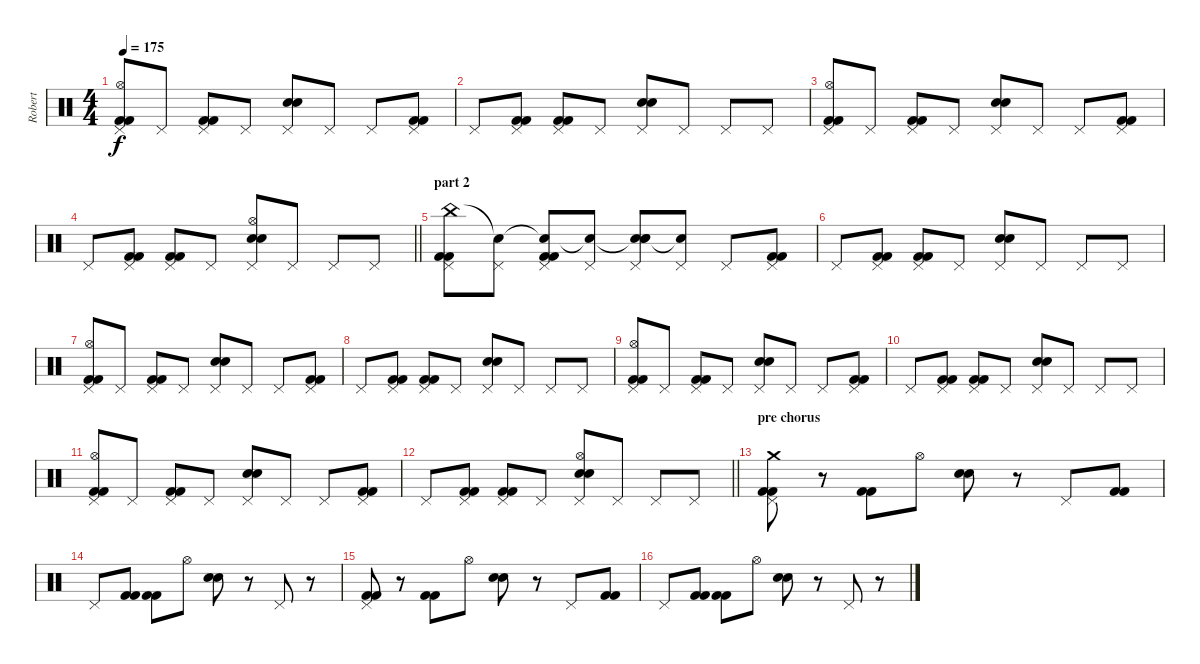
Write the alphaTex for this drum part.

\track ("Robert" "Robert") {instrument percussion}
\staff {score}
\articulation defaults
\ts (4 4)
\tempo 175
\clef neutral
\ks c
("Pedal Hi-Hat (hit)" "Hi-Hat (open)" "Kick (hit) 2" "Kick (hit) 2").8{dy f} "Pedal Hi-Hat (hit)".8 ("Pedal Hi-Hat (hit)" "Kick (hit) 2" "Kick (hit) 2").8 "Pedal Hi-Hat (hit)".8 ("Pedal Hi-Hat (hit)" "Electric Snare (hit)" "Electric Snare (hit)").8 "Pedal Hi-Hat (hit)".8 "Pedal Hi-Hat (hit)".8 ("Pedal Hi-Hat (hit)" "Kick (hit) 2" "Kick (hit) 2").8 |
"Pedal Hi-Hat (hit)".8 ("Pedal Hi-Hat (hit)" "Kick (hit) 2" "Kick (hit) 2").8 ("Pedal Hi-Hat (hit)" "Kick (hit) 2" "Kick (hit) 2").8 "Pedal Hi-Hat (hit)".8 ("Pedal Hi-Hat (hit)" "Electric Snare (hit)" "Electric Snare (hit)").8 "Pedal Hi-Hat (hit)".8 "Pedal Hi-Hat (hit)".8 "Pedal Hi-Hat (hit)".8 |
("Pedal Hi-Hat (hit)" "Hi-Hat (open)" "Kick (hit) 2" "Kick (hit) 2").8 "Pedal Hi-Hat (hit)".8 ("Pedal Hi-Hat (hit)" "Kick (hit) 2" "Kick (hit) 2").8 "Pedal Hi-Hat (hit)".8 ("Pedal Hi-Hat (hit)" "Electric Snare (hit)" "Electric Snare (hit)").8 "Pedal Hi-Hat (hit)".8 "Pedal Hi-Hat (hit)".8 ("Pedal Hi-Hat (hit)" "Kick (hit) 2" "Kick (hit) 2").8 |
\barLineRight lightlight "Pedal Hi-Hat (hit)".8
("Pedal Hi-Hat (hit)" "Kick (hit) 2" "Kick (hit) 2").8 ("Pedal Hi-Hat (hit)" "Kick (hit) 2" "Kick (hit) 2").8 "Pedal Hi-Hat (hit)".8 ("Pedal Hi-Hat (hit)" "Hi-Hat (open)" "Electric Snare (hit)" "Electric Snare (hit)").8 "Pedal Hi-Hat (hit)".8 "Pedal Hi-Hat (hit)".8 "Pedal Hi-Hat (hit)".8 |
\section ("" "part 2")
("Pedal Hi-Hat (hit)" "China (hit)" "Kick (hit) 2" "Kick (hit) 2").8 ("Pedal Hi-Hat (hit)" "Snare (hit)"{t}).8 ("Pedal Hi-Hat (hit)" "Snare (hit)"{t} "Kick (hit) 2" "Kick (hit) 2").8 ("Pedal Hi-Hat (hit)" "Snare (hit)"{t}).8 ("Pedal Hi-Hat (hit)" "Snare (hit)"{t} "Electric Snare (hit)" "Electric Snare (hit)").8 ("Pedal Hi-Hat (hit)" "Snare (hit)"{t}).8 "Pedal Hi-Hat (hit)".8 ("Pedal Hi-Hat (hit)" "Kick (hit) 2" "Kick (hit) 2").8 |
"Pedal Hi-Hat (hit)".8 ("Pedal Hi-Hat (hit)" "Kick (hit) 2" "Kick (hit) 2").8 ("Pedal Hi-Hat (hit)" "Kick (hit) 2" "Kick (hit) 2").8 "Pedal Hi-Hat (hit)".8 ("Pedal Hi-Hat (hit)" "Electric Snare (hit)" "Electric Snare (hit)").8 "Pedal Hi-Hat (hit)".8 "Pedal Hi-Hat (hit)".8 "Pedal Hi-Hat (hit)".8 |
("Pedal Hi-Hat (hit)" "Hi-Hat (open)" "Kick (hit) 2" "Kick (hit) 2").8 "Pedal Hi-Hat (hit)".8 ("Pedal Hi-Hat (hit)" "Kick (hit) 2" "Kick (hit) 2").8 "Pedal Hi-Hat (hit)".8 ("Pedal Hi-Hat (hit)" "Electric Snare (hit)" "Electric Snare (hit)").8 "Pedal Hi-Hat (hit)".8 "Pedal Hi-Hat (hit)".8 ("Pedal Hi-Hat (hit)" "Kick (hit) 2" "Kick (hit) 2").8 |
"Pedal Hi-Hat (hit)".8 ("Pedal Hi-Hat (hit)" "Kick (hit) 2" "Kick (hit) 2").8 ("Pedal Hi-Hat (hit)" "Kick (hit) 2" "Kick (hit) 2").8 "Pedal Hi-Hat (hit)".8 ("Pedal Hi-Hat (hit)" "Electric Snare (hit)" "Electric Snare (hit)").8 "Pedal Hi-Hat (hit)".8 "Pedal Hi-Hat (hit)".8 "Pedal Hi-Hat (hit)".8 |
("Pedal Hi-Hat (hit)" "Hi-Hat (open)" "Kick (hit) 2" "Kick (hit) 2").8 "Pedal Hi-Hat (hit)".8 ("Pedal Hi-Hat (hit)" "Kick (hit) 2" "Kick (hit) 2").8 "Pedal Hi-Hat (hit)".8 ("Pedal Hi-Hat (hit)" "Electric Snare (hit)" "Electric Snare (hit)").8 "Pedal Hi-Hat (hit)".8 "Pedal Hi-Hat (hit)".8 ("Pedal Hi-Hat (hit)" "Kick (hit) 2" "Kick (hit) 2").8 |
"Pedal Hi-Hat (hit)".8 ("Pedal Hi-Hat (hit)" "Kick (hit) 2" "Kick (hit) 2").8 ("Pedal Hi-Hat (hit)" "Kick (hit) 2" "Kick (hit) 2").8 "Pedal Hi-Hat (hit)".8 ("Pedal Hi-Hat (hit)" "Electric Snare (hit)" "Electric Snare (hit)").8 "Pedal Hi-Hat (hit)".8 "Pedal Hi-Hat (hit)".8 "Pedal Hi-Hat (hit)".8 |
("Pedal Hi-Hat (hit)" "Hi-Hat (open)" "Kick (hit) 2" "Kick (hit) 2").8 "Pedal Hi-Hat (hit)".8 ("Pedal Hi-Hat (hit)" "Kick (hit) 2" "Kick (hit) 2").8 "Pedal Hi-Hat (hit)".8 ("Pedal Hi-Hat (hit)" "Electric Snare (hit)" "Electric Snare (hit)").8 "Pedal Hi-Hat (hit)".8 "Pedal Hi-Hat (hit)".8 ("Pedal Hi-Hat (hit)" "Kick (hit) 2" "Kick (hit) 2").8 |
\barLineRight lightlight "Pedal Hi-Hat (hit)".8
("Pedal Hi-Hat (hit)" "Kick (hit) 2" "Kick (hit) 2").8 ("Pedal Hi-Hat (hit)" "Kick (hit) 2" "Kick (hit) 2").8 "Pedal Hi-Hat (hit)".8 ("Pedal Hi-Hat (hit)" "Hi-Hat (open)" "Electric Snare (hit)" "Electric Snare (hit)").8 "Pedal Hi-Hat (hit)".8 "Pedal Hi-Hat (hit)".8 "Pedal Hi-Hat (hit)".8 |
\section ("" "pre chorus")
("Pedal Hi-Hat (hit)" "Crash medium (hit)" "Kick (hit) 2" "Kick (hit) 2").8 r.8 ("Kick (hit) 2" "Kick (hit) 2").8 "Hi-Hat (open)".8 ("Electric Snare (hit)" "Electric Snare (hit)").8 r.8 "Pedal Hi-Hat (hit)".8 ("Kick (hit) 2" "Kick (hit) 2").8 |
"Pedal Hi-Hat (hit)".8 ("Kick (hit) 2" "Kick (hit) 2").8 ("Kick (hit) 2" "Kick (hit) 2").8 "Hi-Hat (open)".8 ("Electric Snare (hit)" "Electric Snare (hit)").8 r.8 "Pedal Hi-Hat (hit)".8 r.8 |
("Pedal Hi-Hat (hit)" "Kick (hit) 2" "Kick (hit) 2").8 r.8 ("Kick (hit) 2" "Kick (hit) 2").8 "Hi-Hat (open)".8 ("Electric Snare (hit)" "Electric Snare (hit)").8 r.8 "Pedal Hi-Hat (hit)".8 ("Kick (hit) 2" "Kick (hit) 2").8 |
"Pedal Hi-Hat (hit)".8 ("Kick (hit) 2" "Kick (hit) 2").8 ("Kick (hit) 2" "Kick (hit) 2").8 "Hi-Hat (open)".8 ("Electric Snare (hit)" "Electric Snare (hit)").8 r.8 "Pedal Hi-Hat (hit)".8 r.8
